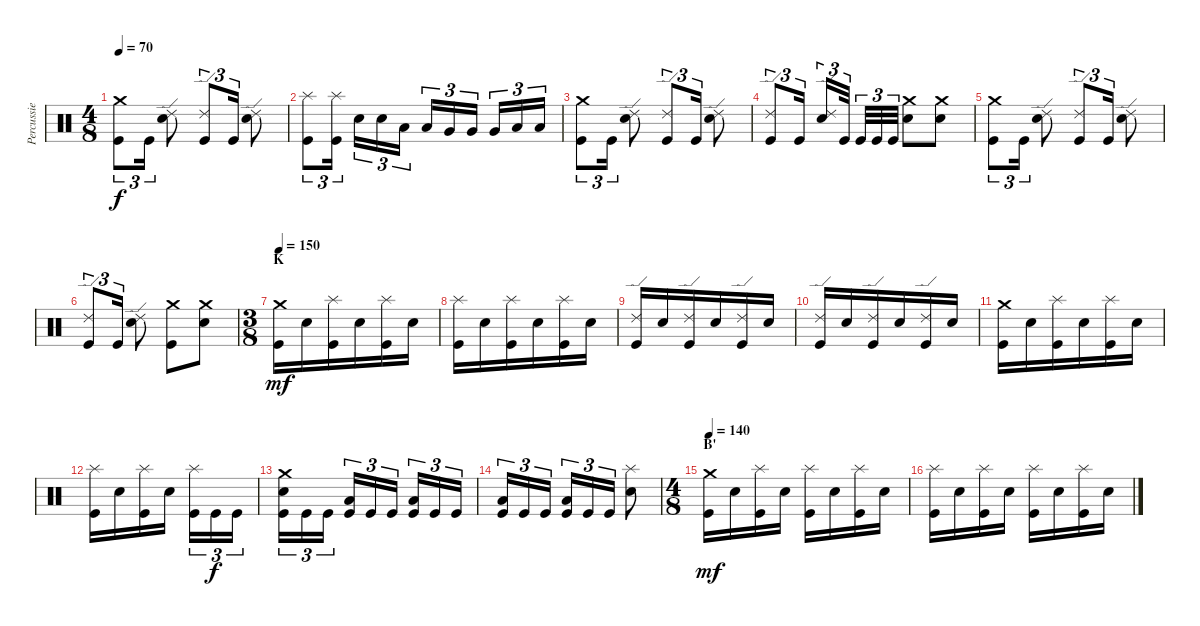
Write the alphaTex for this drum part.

\track ("Percussie" "Percussie") {instrument percussion}
\staff {score}
\articulation defaults
\ts (4 8)
\tempo 70
\clef neutral
\ks c
("Crash medium (hit)" "Kick (hit)").8{tu (3 2) dy f} "Kick (hit)".16{tu (3 2)} ("Ride (edge) 2" "Electric Snare (hit)").8 ("Ride (edge) 2" "Kick (hit)").8{tu (3 2)} "Kick (hit)".16{tu (3 2)} ("Ride (edge) 2" "Electric Snare (hit)").8 |
("Splash (hit)" "Kick (hit)").8{tu (3 2)} ("Splash (hit)" "Kick (hit)").16{tu (3 2)} "Electric Snare (hit)".16{tu (3 2)} "Electric Snare (hit)".16{tu (3 2)} "Low Tom (hit)".16{tu (3 2)} "Low Tom (hit)".16{tu (3 2)} "Very Low Tom (hit)".16{tu (3 2)} "Very Low Tom (hit)".16{tu (3 2)} "Very Low Tom (hit)".16{tu (3 2)} "Low Floor Tom (hit)".16{tu (3 2)} "Low Floor Tom (hit)".16{tu (3 2)} |
("Crash medium (hit)" "Kick (hit)").8{tu (3 2)} "Kick (hit)".16{tu (3 2)} ("Ride (edge) 2" "Electric Snare (hit)").8 ("Ride (edge) 2" "Kick (hit)").8{tu (3 2)} "Kick (hit)".16{tu (3 2)} ("Ride (edge) 2" "Electric Snare (hit)").8 |
("Ride (edge) 2" "Kick (hit)").8{tu (3 2)} "Kick (hit)".16{tu (3 2)} ("Ride (edge) 2" "Electric Snare (hit)").16{tu (3 2)} "Kick (hit)".32{tu (3 2)} "Kick (hit)".32{tu (3 2)} "Kick (hit)".32{tu (3 2)} "Kick (hit)".32{tu (3 2)} ("Crash medium (hit)" "Electric Snare (hit)").8 ("Crash medium (hit)" "Electric Snare (hit)").8 |
("Crash medium (hit)" "Kick (hit)").8{tu (3 2)} "Kick (hit)".16{tu (3 2)} ("Ride (edge) 2" "Electric Snare (hit)").8 ("Ride (edge) 2" "Kick (hit)").8{tu (3 2)} "Kick (hit)".16{tu (3 2)} ("Ride (edge) 2" "Electric Snare (hit)").8 |
("Ride (edge) 2" "Kick (hit)").8{tu (3 2)} "Kick (hit)".16{tu (3 2)} ("Ride (edge) 2" "Electric Snare (hit)").8 ("Crash medium (hit)" "Kick (hit)").8 ("Crash medium (hit)" "Electric Snare (hit)").8 |
\ts (3 8)
\section ("" "K")
\tempo 150
("Crash medium (hit)" "Kick (hit)").16{dy mf} "Electric Snare (hit)".16 ("Splash (hit)" "Kick (hit)").16 "Electric Snare (hit)".16 ("Splash (hit)" "Kick (hit)").16 "Electric Snare (hit)".16 |
("Splash (hit)" "Kick (hit)").16 "Electric Snare (hit)".16 ("Splash (hit)" "Kick (hit)").16 "Electric Snare (hit)".16 ("Splash (hit)" "Kick (hit)").16 "Electric Snare (hit)".16 |
("Ride (edge) 2" "Kick (hit)").16 "Electric Snare (hit)".16 ("Ride (edge) 2" "Kick (hit)").16 "Electric Snare (hit)".16 ("Ride (edge) 2" "Kick (hit)").16 "Electric Snare (hit)".16 |
("Ride (edge) 2" "Kick (hit)").16 "Electric Snare (hit)".16 ("Ride (edge) 2" "Kick (hit)").16 "Electric Snare (hit)".16 ("Ride (edge) 2" "Kick (hit)").16 "Electric Snare (hit)".16 |
("Crash medium (hit)" "Kick (hit)").16 "Electric Snare (hit)".16 ("Splash (hit)" "Kick (hit)").16 "Electric Snare (hit)".16 ("Splash (hit)" "Kick (hit)").16 "Electric Snare (hit)".16 |
("Splash (hit)" "Kick (hit)").16 "Electric Snare (hit)".16 ("Splash (hit)" "Kick (hit)").16 "Electric Snare (hit)".16 ("Splash (hit)" "Kick (hit)").16{tu (3 2)} "Kick (hit)".16{tu (3 2) dy f} "Kick (hit)".16{tu (3 2)} |
("Crash medium (hit)" "Electric Snare (hit)" "Kick (hit)").16{tu (3 2)} "Kick (hit)".16{tu (3 2)} "Kick (hit)".16{tu (3 2)} ("Low Tom (hit)" "Kick (hit)").16{tu (3 2)} "Kick (hit)".16{tu (3 2)} "Kick (hit)".16{tu (3 2)} ("Low Tom (hit)" "Kick (hit)").16{tu (3 2)} "Kick (hit)".16{tu (3 2)} "Kick (hit)".16{tu (3 2)} |
("Low Tom (hit)" "Kick (hit)").16{tu (3 2)} "Kick (hit)".16{tu (3 2)} "Kick (hit)".16{tu (3 2)} ("Low Tom (hit)" "Kick (hit)").16{tu (3 2)} "Kick (hit)".16{tu (3 2)} "Kick (hit)".16{tu (3 2)} ("Splash (hit)" "Electric Snare (hit)").8 |
\ts (4 8)
\section ("" "B'")
\tempo 140
("Crash medium (hit)" "Kick (hit)").16{dy mf} "Electric Snare (hit)".16 ("Splash (hit)" "Kick (hit)").16 "Electric Snare (hit)".16 ("Splash (hit)" "Kick (hit)").16 "Electric Snare (hit)".16 ("Splash (hit)" "Kick (hit)").16 "Electric Snare (hit)".16 |
("Splash (hit)" "Kick (hit)").16 "Electric Snare (hit)".16 ("Splash (hit)" "Kick (hit)").16 "Electric Snare (hit)".16 ("Splash (hit)" "Kick (hit)").16 "Electric Snare (hit)".16 ("Splash (hit)" "Kick (hit)").16 "Electric Snare (hit)".16
